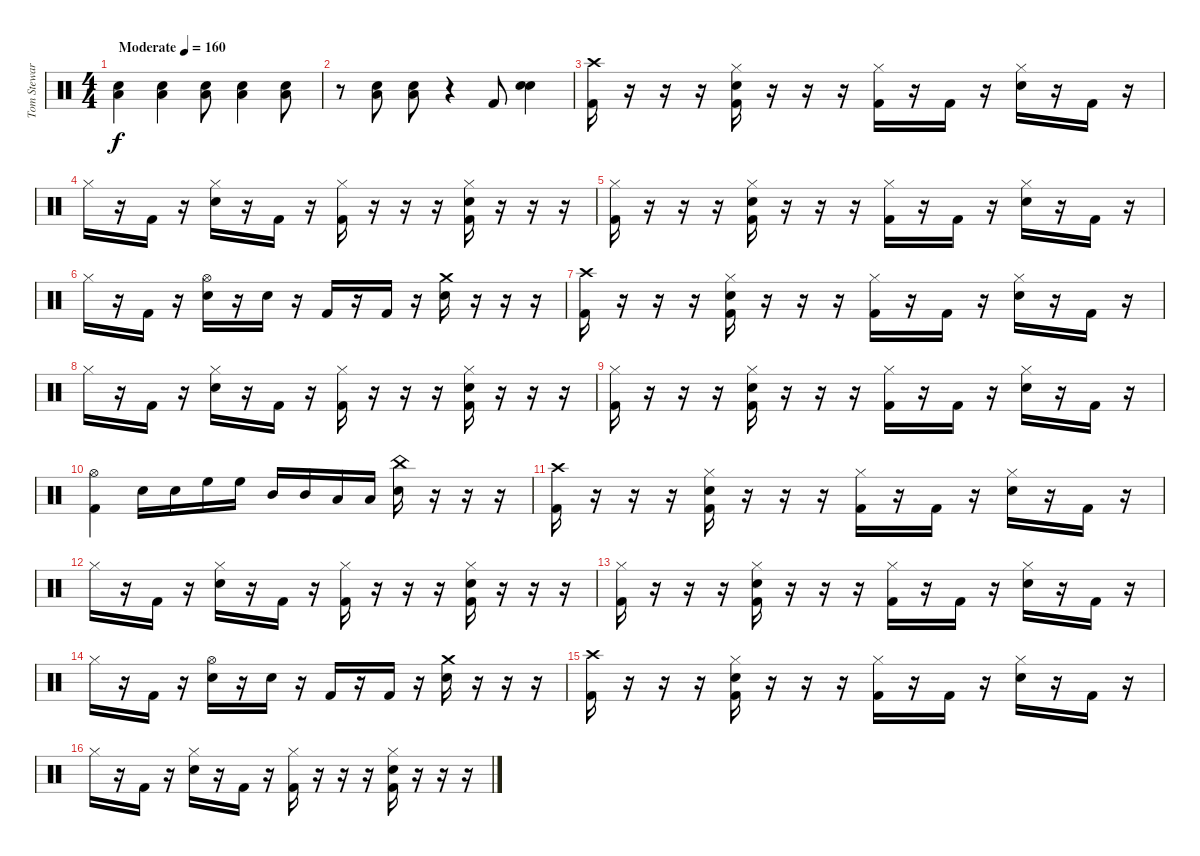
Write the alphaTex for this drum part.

\track ("Tom Steward" "Tom Stewar") {instrument percussion}
\staff {score}
\articulation defaults
\ts (4 4)
\tempo (160 "Moderate")
\clef neutral
\ks c
("Snare (hit) 2" "Low Tom (hit)").4{dy f} ("Snare (hit) 2" "Low Tom (hit)").4 ("Snare (hit) 2" "Low Tom (hit)").8 ("Snare (hit) 2" "Low Tom (hit)").4 ("Snare (hit) 2" "Low Tom (hit)").8 |
r.8 ("Snare (hit) 2" "Low Tom (hit)").8 ("Snare (hit) 2" "Low Tom (hit)").8 r.4 "Kick (hit) 2".8 ("Snare (hit) 2" "Snare (hit) 2").4 |
("Crash high (hit)" "Kick (hit) 2").16 r.16 r.16 r.16 ("Hi-Hat (closed)" "Snare (hit) 2" "Kick (hit) 2").16 r.16 r.16 r.16 ("Hi-Hat (closed)" "Kick (hit) 2").16 r.16 "Kick (hit) 2".16 r.16 ("Hi-Hat (closed)" "Snare (hit) 2").16 r.16 "Kick (hit) 2".16 r.16 |
"Hi-Hat (closed)".16 r.16 "Kick (hit) 2".16 r.16 ("Hi-Hat (closed)" "Snare (hit) 2").16 r.16 "Kick (hit) 2".16 r.16 ("Hi-Hat (closed)" "Kick (hit) 2").16 r.16 r.16 r.16 ("Hi-Hat (closed)" "Snare (hit) 2" "Kick (hit) 2").16 r.16 r.16 r.16 |
("Hi-Hat (closed)" "Kick (hit) 2").16 r.16 r.16 r.16 ("Hi-Hat (closed)" "Snare (hit) 2" "Kick (hit) 2").16 r.16 r.16 r.16 ("Hi-Hat (closed)" "Kick (hit) 2").16 r.16 "Kick (hit) 2".16 r.16 ("Hi-Hat (closed)" "Snare (hit) 2").16 r.16 "Kick (hit) 2".16 r.16 |
"Hi-Hat (closed)".16 r.16 "Kick (hit) 2".16 r.16 ("Hi-Hat (open)" "Snare (hit) 2").16 r.16 "Snare (hit) 2".16 r.16 "Kick (hit) 2".16 r.16 "Kick (hit) 2".16 r.16 ("Crash medium (hit)" "Snare (hit) 2").16 r.16 r.16 r.16 |
("Crash high (hit)" "Kick (hit) 2").16 r.16 r.16 r.16 ("Hi-Hat (closed)" "Snare (hit) 2" "Kick (hit) 2").16 r.16 r.16 r.16 ("Hi-Hat (closed)" "Kick (hit) 2").16 r.16 "Kick (hit) 2".16 r.16 ("Hi-Hat (closed)" "Snare (hit) 2").16 r.16 "Kick (hit) 2".16 r.16 |
"Hi-Hat (closed)".16 r.16 "Kick (hit) 2".16 r.16 ("Hi-Hat (closed)" "Snare (hit) 2").16 r.16 "Kick (hit) 2".16 r.16 ("Hi-Hat (closed)" "Kick (hit) 2").16 r.16 r.16 r.16 ("Hi-Hat (closed)" "Snare (hit) 2" "Kick (hit) 2").16 r.16 r.16 r.16 |
("Hi-Hat (closed)" "Kick (hit) 2").16 r.16 r.16 r.16 ("Hi-Hat (closed)" "Snare (hit) 2" "Kick (hit) 2").16 r.16 r.16 r.16 ("Hi-Hat (closed)" "Kick (hit) 2").16 r.16 "Kick (hit) 2".16 r.16 ("Hi-Hat (closed)" "Snare (hit) 2").16 r.16 "Kick (hit) 2".16 r.16 |
("Hi-Hat (open)" "Kick (hit) 2").4 "Snare (hit) 2".16 "Snare (hit) 2".16 "High Floor Tom (hit)".16 "High Floor Tom (hit)".16 "Mid Tom (hit)".16 "Mid Tom (hit)".16 "Low Tom (hit)".16 "Low Tom (hit)".16 ("China (hit)" "Snare (hit) 2").16 r.16 r.16 r.16 |
("Crash high (hit)" "Kick (hit) 2").16 r.16 r.16 r.16 ("Hi-Hat (closed)" "Snare (hit) 2" "Kick (hit) 2").16 r.16 r.16 r.16 ("Hi-Hat (closed)" "Kick (hit) 2").16 r.16 "Kick (hit) 2".16 r.16 ("Hi-Hat (closed)" "Snare (hit) 2").16 r.16 "Kick (hit) 2".16 r.16 |
"Hi-Hat (closed)".16 r.16 "Kick (hit) 2".16 r.16 ("Hi-Hat (closed)" "Snare (hit) 2").16 r.16 "Kick (hit) 2".16 r.16 ("Hi-Hat (closed)" "Kick (hit) 2").16 r.16 r.16 r.16 ("Hi-Hat (closed)" "Snare (hit) 2" "Kick (hit) 2").16 r.16 r.16 r.16 |
("Hi-Hat (closed)" "Kick (hit) 2").16 r.16 r.16 r.16 ("Hi-Hat (closed)" "Snare (hit) 2" "Kick (hit) 2").16 r.16 r.16 r.16 ("Hi-Hat (closed)" "Kick (hit) 2").16 r.16 "Kick (hit) 2".16 r.16 ("Hi-Hat (closed)" "Snare (hit) 2").16 r.16 "Kick (hit) 2".16 r.16 |
"Hi-Hat (closed)".16 r.16 "Kick (hit) 2".16 r.16 ("Hi-Hat (open)" "Snare (hit) 2").16 r.16 "Snare (hit) 2".16 r.16 "Kick (hit) 2".16 r.16 "Kick (hit) 2".16 r.16 ("Crash medium (hit)" "Snare (hit) 2").16 r.16 r.16 r.16 |
("Crash high (hit)" "Kick (hit) 2").16 r.16 r.16 r.16 ("Hi-Hat (closed)" "Snare (hit) 2" "Kick (hit) 2").16 r.16 r.16 r.16 ("Hi-Hat (closed)" "Kick (hit) 2").16 r.16 "Kick (hit) 2".16 r.16 ("Hi-Hat (closed)" "Snare (hit) 2").16 r.16 "Kick (hit) 2".16 r.16 |
"Hi-Hat (closed)".16 r.16 "Kick (hit) 2".16 r.16 ("Hi-Hat (closed)" "Snare (hit) 2").16 r.16 "Kick (hit) 2".16 r.16 ("Hi-Hat (closed)" "Kick (hit) 2").16 r.16 r.16 r.16 ("Hi-Hat (closed)" "Snare (hit) 2" "Kick (hit) 2").16 r.16 r.16 r.16
